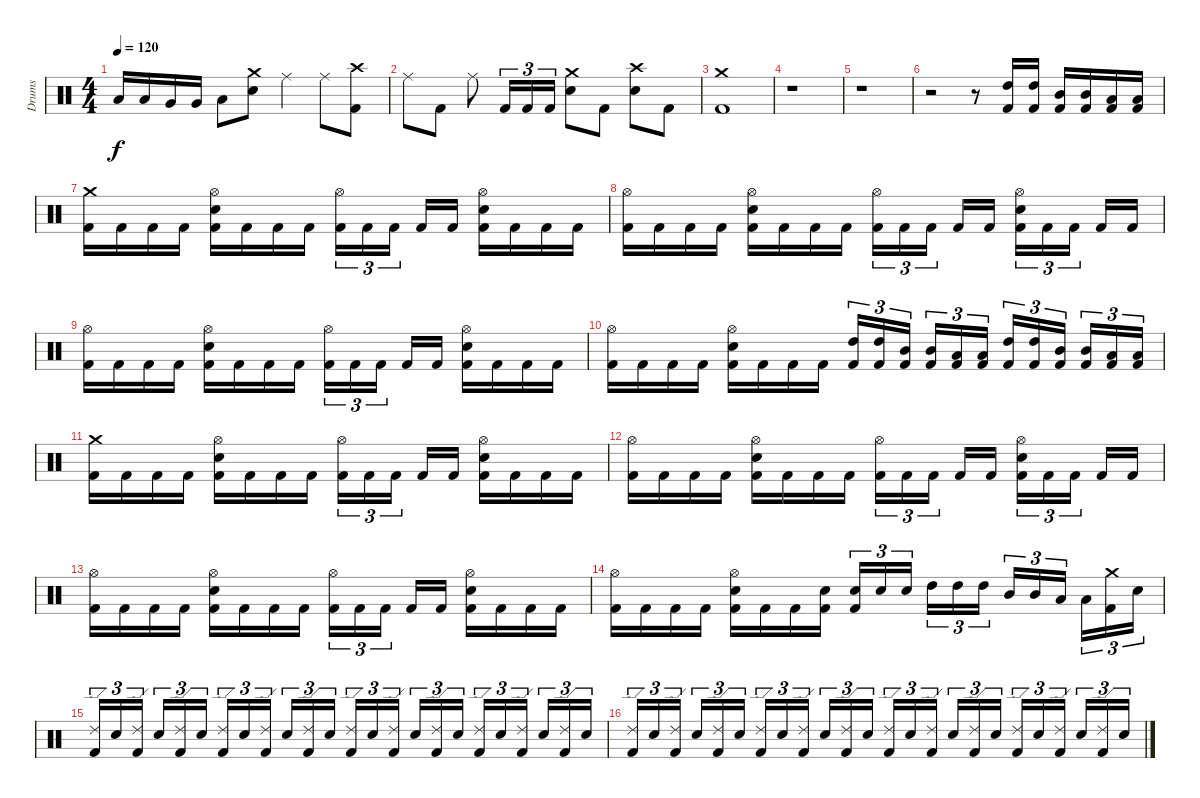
\track ("Drums" "Drums") {instrument percussion}
\staff {score}
\articulation defaults
\ts (4 4)
\tempo 120
\clef neutral
\ks c "Low Tom (hit)".16{dy f} "Low Tom (hit)".16 "Very Low Tom (hit)".16 "Very Low Tom (hit)".16 "Low Floor Tom (hit)".8
("Electric Snare (hit)" "Crash medium (hit)").8 "Ride (middle)".4 "Ride (middle)".8 ("Kick (hit) 2" "Crash high (hit)").8 |
"Ride (middle)".8 "Kick (hit) 2".8 "Ride (middle)".8 "Kick (hit) 2".16{tu (3 2)} "Kick (hit) 2".16{tu (3 2)} "Kick (hit) 2".16{tu (3 2)} ("Electric Snare (hit)" "Crash medium (hit)").8 "Kick (hit) 2".8 ("Electric Snare (hit)" "Crash high (hit)").8 "Kick (hit) 2".8 |
("Kick (hit) 2" "Crash medium (hit)").1 |
r.1 |
r.1 |
r.2 r.8 ("Kick (hit) 2" "High Tom (hit)").16 ("Kick (hit) 2" "High Tom (hit)").16 ("Kick (hit) 2" "Mid Tom (hit)").16 ("Kick (hit) 2" "Mid Tom (hit)").16 ("Kick (hit) 2" "Low Tom (hit)").16 ("Kick (hit) 2" "Low Tom (hit)").16 |
("Kick (hit) 2" "Crash medium (hit)").16 "Kick (hit) 2".16 "Kick (hit) 2".16 "Kick (hit) 2".16 ("Kick (hit) 2" "Electric Snare (hit)" "Hi-Hat (open)").16 "Kick (hit) 2".16 "Kick (hit) 2".16 "Kick (hit) 2".16 ("Kick (hit) 2" "Hi-Hat (open)").16{tu (3 2)} "Kick (hit) 2".16{tu (3 2)} "Kick (hit) 2".16{tu (3 2)} "Kick (hit) 2".16 "Kick (hit) 2".16 ("Kick (hit) 2" "Electric Snare (hit)" "Hi-Hat (open)").16 "Kick (hit) 2".16 "Kick (hit) 2".16 "Kick (hit) 2".16 |
("Kick (hit) 2" "Hi-Hat (open)").16 "Kick (hit) 2".16 "Kick (hit) 2".16 "Kick (hit) 2".16 ("Kick (hit) 2" "Electric Snare (hit)" "Hi-Hat (open)").16 "Kick (hit) 2".16 "Kick (hit) 2".16 "Kick (hit) 2".16 ("Kick (hit) 2" "Hi-Hat (open)").16{tu (3 2)} "Kick (hit) 2".16{tu (3 2)} "Kick (hit) 2".16{tu (3 2)} "Kick (hit) 2".16 "Kick (hit) 2".16 ("Kick (hit) 2" "Electric Snare (hit)" "Hi-Hat (open)").16{tu (3 2)} "Kick (hit) 2".16{tu (3 2)} "Kick (hit) 2".16{tu (3 2)} "Kick (hit) 2".16 "Kick (hit) 2".16 |
("Kick (hit) 2" "Hi-Hat (open)").16 "Kick (hit) 2".16 "Kick (hit) 2".16 "Kick (hit) 2".16 ("Kick (hit) 2" "Electric Snare (hit)" "Hi-Hat (open)").16 "Kick (hit) 2".16 "Kick (hit) 2".16 "Kick (hit) 2".16 ("Kick (hit) 2" "Hi-Hat (open)").16{tu (3 2)} "Kick (hit) 2".16{tu (3 2)} "Kick (hit) 2".16{tu (3 2)} "Kick (hit) 2".16 "Kick (hit) 2".16 ("Kick (hit) 2" "Electric Snare (hit)" "Hi-Hat (open)").16 "Kick (hit) 2".16 "Kick (hit) 2".16 "Kick (hit) 2".16 |
("Kick (hit) 2" "Hi-Hat (open)").16 "Kick (hit) 2".16 "Kick (hit) 2".16 "Kick (hit) 2".16 ("Kick (hit) 2" "Electric Snare (hit)" "Hi-Hat (open)").16 "Kick (hit) 2".16 "Kick (hit) 2".16 "Kick (hit) 2".16 ("Kick (hit) 2" "High Tom (hit)").16{tu (3 2)} ("Kick (hit) 2" "High Tom (hit)").16{tu (3 2)} ("Kick (hit) 2" "Mid Tom (hit)").16{tu (3 2)} ("Kick (hit) 2" "Mid Tom (hit)").16{tu (3 2)} ("Kick (hit) 2" "Low Tom (hit)").16{tu (3 2)} ("Kick (hit) 2" "Low Tom (hit)").16{tu (3 2)} ("Kick (hit) 2" "High Tom (hit)").16{tu (3 2)} ("Kick (hit) 2" "High Tom (hit)").16{tu (3 2)} ("Kick (hit) 2" "Mid Tom (hit)").16{tu (3 2)} ("Kick (hit) 2" "Mid Tom (hit)").16{tu (3 2)} ("Kick (hit) 2" "Low Tom (hit)").16{tu (3 2)} ("Kick (hit) 2" "Low Tom (hit)").16{tu (3 2)} |
("Kick (hit) 2" "Crash medium (hit)").16 "Kick (hit) 2".16 "Kick (hit) 2".16 "Kick (hit) 2".16 ("Kick (hit) 2" "Electric Snare (hit)" "Hi-Hat (open)").16 "Kick (hit) 2".16 "Kick (hit) 2".16 "Kick (hit) 2".16 ("Kick (hit) 2" "Hi-Hat (open)").16{tu (3 2)} "Kick (hit) 2".16{tu (3 2)} "Kick (hit) 2".16{tu (3 2)} "Kick (hit) 2".16 "Kick (hit) 2".16 ("Kick (hit) 2" "Electric Snare (hit)" "Hi-Hat (open)").16 "Kick (hit) 2".16 "Kick (hit) 2".16 "Kick (hit) 2".16 |
("Kick (hit) 2" "Hi-Hat (open)").16 "Kick (hit) 2".16 "Kick (hit) 2".16 "Kick (hit) 2".16 ("Kick (hit) 2" "Electric Snare (hit)" "Hi-Hat (open)").16 "Kick (hit) 2".16 "Kick (hit) 2".16 "Kick (hit) 2".16 ("Kick (hit) 2" "Hi-Hat (open)").16{tu (3 2)} "Kick (hit) 2".16{tu (3 2)} "Kick (hit) 2".16{tu (3 2)} "Kick (hit) 2".16 "Kick (hit) 2".16 ("Kick (hit) 2" "Electric Snare (hit)" "Hi-Hat (open)").16{tu (3 2)} "Kick (hit) 2".16{tu (3 2)} "Kick (hit) 2".16{tu (3 2)} "Kick (hit) 2".16 "Kick (hit) 2".16 |
("Kick (hit) 2" "Hi-Hat (open)").16 "Kick (hit) 2".16 "Kick (hit) 2".16 "Kick (hit) 2".16 ("Kick (hit) 2" "Electric Snare (hit)" "Hi-Hat (open)").16 "Kick (hit) 2".16 "Kick (hit) 2".16 "Kick (hit) 2".16 ("Kick (hit) 2" "Hi-Hat (open)").16{tu (3 2)} "Kick (hit) 2".16{tu (3 2)} "Kick (hit) 2".16{tu (3 2)} "Kick (hit) 2".16 "Kick (hit) 2".16 ("Kick (hit) 2" "Electric Snare (hit)" "Hi-Hat (open)").16 "Kick (hit) 2".16 "Kick (hit) 2".16 "Kick (hit) 2".16 |
("Kick (hit) 2" "Hi-Hat (open)").16 "Kick (hit) 2".16 "Kick (hit) 2".16 "Kick (hit) 2".16 ("Kick (hit) 2" "Electric Snare (hit)" "Hi-Hat (open)").16 "Kick (hit) 2".16 "Kick (hit) 2".16 ("Kick (hit) 2" "Electric Snare (hit)").16 ("Kick (hit) 2" "Electric Snare (hit)").16{tu (3 2)} "Electric Snare (hit)".16{tu (3 2)} "Electric Snare (hit)".16{tu (3 2)} "High Tom (hit)".16{tu (3 2)} "High Tom (hit)".16{tu (3 2)} "High Tom (hit)".16{tu (3 2)} "Mid Tom (hit)".16{tu (3 2)} "Mid Tom (hit)".16{tu (3 2)} "Low Tom (hit)".16{tu (3 2)} "Low Tom (hit)".16{tu (3 2)} ("Kick (hit) 2" "Crash medium (hit)").16{tu (3 2)} "Snare (hit) 2".16{tu (3 2)} |
("Kick (hit) 2" "Ride (edge) 2").16{tu (3 2)} "Snare (hit) 2".16{tu (3 2)} ("Kick (hit) 2" "Ride (edge) 2").16{tu (3 2)} "Snare (hit) 2".16{tu (3 2)} ("Kick (hit) 2" "Ride (edge) 2").16{tu (3 2)} "Snare (hit) 2".16{tu (3 2)} ("Kick (hit) 2" "Ride (edge) 2").16{tu (3 2)} "Snare (hit) 2".16{tu (3 2)} ("Kick (hit) 2" "Ride (edge) 2").16{tu (3 2)} "Snare (hit) 2".16{tu (3 2)} ("Kick (hit) 2" "Ride (edge) 2").16{tu (3 2)} "Snare (hit) 2".16{tu (3 2)} ("Kick (hit) 2" "Ride (edge) 2").16{tu (3 2)} "Snare (hit) 2".16{tu (3 2)} ("Kick (hit) 2" "Ride (edge) 2").16{tu (3 2)} "Snare (hit) 2".16{tu (3 2)} ("Kick (hit) 2" "Ride (edge) 2").16{tu (3 2)} "Snare (hit) 2".16{tu (3 2)} ("Kick (hit) 2" "Ride (edge) 2").16{tu (3 2)} "Snare (hit) 2".16{tu (3 2)} ("Kick (hit) 2" "Ride (edge) 2").16{tu (3 2)} "Snare (hit) 2".16{tu (3 2)} ("Kick (hit) 2" "Ride (edge) 2").16{tu (3 2)} "Snare (hit) 2".16{tu (3 2)} |
("Kick (hit) 2" "Ride (edge) 2").16{tu (3 2)} "Snare (hit) 2".16{tu (3 2)} ("Kick (hit) 2" "Ride (edge) 2").16{tu (3 2)} "Snare (hit) 2".16{tu (3 2)} ("Kick (hit) 2" "Ride (edge) 2").16{tu (3 2)} "Snare (hit) 2".16{tu (3 2)} ("Kick (hit) 2" "Ride (edge) 2").16{tu (3 2)} "Snare (hit) 2".16{tu (3 2)} ("Kick (hit) 2" "Ride (edge) 2").16{tu (3 2)} "Snare (hit) 2".16{tu (3 2)} ("Kick (hit) 2" "Ride (edge) 2").16{tu (3 2)} "Snare (hit) 2".16{tu (3 2)} ("Kick (hit) 2" "Ride (edge) 2").16{tu (3 2)} "Snare (hit) 2".16{tu (3 2)} ("Kick (hit) 2" "Ride (edge) 2").16{tu (3 2)} "Snare (hit) 2".16{tu (3 2)} ("Kick (hit) 2" "Ride (edge) 2").16{tu (3 2)} "Snare (hit) 2".16{tu (3 2)} ("Kick (hit) 2" "Ride (edge) 2").16{tu (3 2)} "Snare (hit) 2".16{tu (3 2)} ("Kick (hit) 2" "Ride (edge) 2").16{tu (3 2)} "Snare (hit) 2".16{tu (3 2)} ("Kick (hit) 2" "Ride (edge) 2").16{tu (3 2)} "Snare (hit) 2".16{tu (3 2)}
